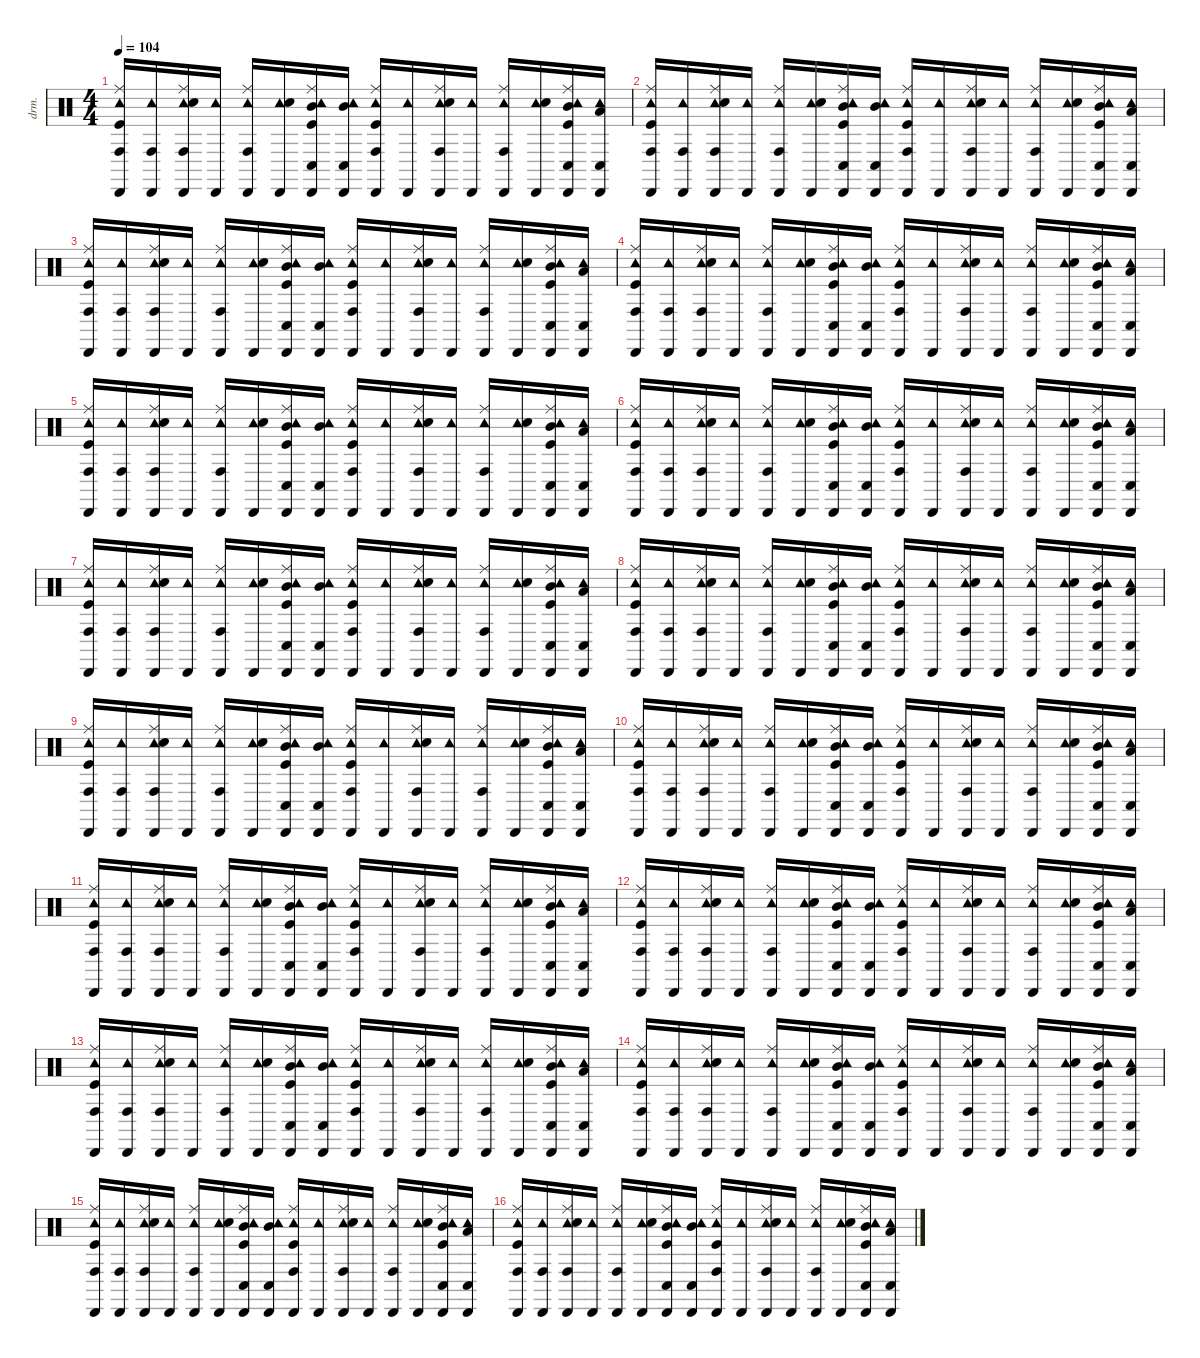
\defaultSystemsLayout 4
\hideDynamics
\bracketExtendMode nobrackets
\otherSystemsTrackNameOrientation horizontal
\track ("Drums" "drm.") {instrument percussion}
\staff {score}
\articulation defaults
\ts (4 4)
\tempo 104
\clef neutral
\ks c
("Cabasa (hit)" "Conga high (hit)" "Tambourine (hit)" "Ride (middle)" "Kick (hit)").16{dy f beam Up} ("Cabasa (hit)" "Conga high (hit)" "Tambourine (hit)").16{beam Up} ("Cabasa (hit)" "Conga high (hit)" "Tambourine (hit)" "Ride (middle)" "Snare (hit) 2").16{beam Up} ("Cabasa (hit)" "Tambourine (hit)").16{beam Up} ("Cabasa (hit)" "Conga high (hit)" "Tambourine (hit)" "Ride (middle)").16{beam Up} ("Cabasa (hit)" "Tambourine (hit)" "Snare (hit) 2").16{beam Up} ("Cabasa (hit)" "Conga low (hit)" "Tambourine (hit)" "Ride (middle)" "Mid Tom (hit)" "Kick (hit)").16{beam Up} ("Cabasa (hit)" "Conga low (hit)" "Tambourine (hit)" "Mid Tom (hit)").16{beam Up} ("Cabasa (hit)" "Conga high (hit)" "Tambourine (hit)" "Ride (middle)" "Kick (hit)").16{beam Up} ("Cabasa (hit)" "Tambourine (hit)").16{beam Up} ("Cabasa (hit)" "Conga high (hit)" "Tambourine (hit)" "Ride (middle)" "Snare (hit) 2").16{beam Up} ("Cabasa (hit)" "Tambourine (hit)").16{beam Up} ("Cabasa (hit)" "Conga high (hit)" "Tambourine (hit)" "Ride (middle)").16{beam Up} ("Cabasa (hit)" "Tambourine (hit)" "Snare (hit) 2").16{beam Up} ("Cabasa (hit)" "Conga low (hit)" "Tambourine (hit)" "Ride (middle)" "Mid Tom (hit)" "Kick (hit)").16{beam Up} ("Cabasa (hit)" "Conga low (hit)" "Tambourine (hit)" "Low Tom (hit)").16{beam Up} |
("Cabasa (hit)" "Conga high (hit)" "Tambourine (hit)" "Ride (middle)" "Kick (hit)").16{beam Up} ("Cabasa (hit)" "Conga high (hit)" "Tambourine (hit)").16{beam Up} ("Cabasa (hit)" "Conga high (hit)" "Tambourine (hit)" "Ride (middle)" "Snare (hit) 2").16{beam Up} ("Cabasa (hit)" "Tambourine (hit)").16{beam Up} ("Cabasa (hit)" "Conga high (hit)" "Tambourine (hit)" "Ride (middle)").16{beam Up} ("Cabasa (hit)" "Tambourine (hit)" "Snare (hit) 2").16{beam Up} ("Cabasa (hit)" "Conga low (hit)" "Tambourine (hit)" "Ride (middle)" "Mid Tom (hit)" "Kick (hit)").16{beam Up} ("Cabasa (hit)" "Conga low (hit)" "Tambourine (hit)" "Mid Tom (hit)").16{beam Up} ("Cabasa (hit)" "Conga high (hit)" "Tambourine (hit)" "Ride (middle)" "Kick (hit)").16{beam Up} ("Cabasa (hit)" "Tambourine (hit)").16{beam Up} ("Cabasa (hit)" "Conga high (hit)" "Tambourine (hit)" "Ride (middle)" "Snare (hit) 2").16{beam Up} ("Cabasa (hit)" "Tambourine (hit)").16{beam Up} ("Cabasa (hit)" "Conga high (hit)" "Tambourine (hit)" "Ride (middle)").16{beam Up} ("Cabasa (hit)" "Tambourine (hit)" "Snare (hit) 2").16{beam Up} ("Cabasa (hit)" "Conga low (hit)" "Tambourine (hit)" "Ride (middle)" "Mid Tom (hit)" "Kick (hit)").16{beam Up} ("Cabasa (hit)" "Conga low (hit)" "Tambourine (hit)" "Low Tom (hit)").16{beam Up} |
("Cabasa (hit)" "Conga high (hit)" "Tambourine (hit)" "Ride (middle)" "Kick (hit)").16{beam Up} ("Cabasa (hit)" "Conga high (hit)" "Tambourine (hit)").16{beam Up} ("Cabasa (hit)" "Conga high (hit)" "Tambourine (hit)" "Ride (middle)" "Snare (hit) 2").16{beam Up} ("Cabasa (hit)" "Tambourine (hit)").16{beam Up} ("Cabasa (hit)" "Conga high (hit)" "Tambourine (hit)" "Ride (middle)").16{beam Up} ("Cabasa (hit)" "Tambourine (hit)" "Snare (hit) 2").16{beam Up} ("Cabasa (hit)" "Conga low (hit)" "Tambourine (hit)" "Ride (middle)" "Mid Tom (hit)" "Kick (hit)").16{beam Up} ("Cabasa (hit)" "Conga low (hit)" "Tambourine (hit)" "Mid Tom (hit)").16{beam Up} ("Cabasa (hit)" "Conga high (hit)" "Tambourine (hit)" "Ride (middle)" "Kick (hit)").16{beam Up} ("Cabasa (hit)" "Tambourine (hit)").16{beam Up} ("Cabasa (hit)" "Conga high (hit)" "Tambourine (hit)" "Ride (middle)" "Snare (hit) 2").16{beam Up} ("Cabasa (hit)" "Tambourine (hit)").16{beam Up} ("Cabasa (hit)" "Conga high (hit)" "Tambourine (hit)" "Ride (middle)").16{beam Up} ("Cabasa (hit)" "Tambourine (hit)" "Snare (hit) 2").16{beam Up} ("Cabasa (hit)" "Conga low (hit)" "Tambourine (hit)" "Ride (middle)" "Mid Tom (hit)" "Kick (hit)").16{beam Up} ("Cabasa (hit)" "Conga low (hit)" "Tambourine (hit)" "Low Tom (hit)").16{beam Up} |
("Cabasa (hit)" "Conga high (hit)" "Tambourine (hit)" "Ride (middle)" "Kick (hit)").16{beam Up} ("Cabasa (hit)" "Conga high (hit)" "Tambourine (hit)").16{beam Up} ("Cabasa (hit)" "Conga high (hit)" "Tambourine (hit)" "Ride (middle)" "Snare (hit) 2").16{beam Up} ("Cabasa (hit)" "Tambourine (hit)").16{beam Up} ("Cabasa (hit)" "Conga high (hit)" "Tambourine (hit)" "Ride (middle)").16{beam Up} ("Cabasa (hit)" "Tambourine (hit)" "Snare (hit) 2").16{beam Up} ("Cabasa (hit)" "Conga low (hit)" "Tambourine (hit)" "Ride (middle)" "Mid Tom (hit)" "Kick (hit)").16{beam Up} ("Cabasa (hit)" "Conga low (hit)" "Tambourine (hit)" "Mid Tom (hit)").16{beam Up} ("Cabasa (hit)" "Conga high (hit)" "Tambourine (hit)" "Ride (middle)" "Kick (hit)").16{beam Up} ("Cabasa (hit)" "Tambourine (hit)").16{beam Up} ("Cabasa (hit)" "Conga high (hit)" "Tambourine (hit)" "Ride (middle)" "Snare (hit) 2").16{beam Up} ("Cabasa (hit)" "Tambourine (hit)").16{beam Up} ("Cabasa (hit)" "Conga high (hit)" "Tambourine (hit)" "Ride (middle)").16{beam Up} ("Cabasa (hit)" "Tambourine (hit)" "Snare (hit) 2").16{beam Up} ("Cabasa (hit)" "Conga low (hit)" "Tambourine (hit)" "Ride (middle)" "Mid Tom (hit)" "Kick (hit)").16{beam Up} ("Cabasa (hit)" "Conga low (hit)" "Tambourine (hit)" "Low Tom (hit)").16{beam Up} |
("Cabasa (hit)" "Conga high (hit)" "Tambourine (hit)" "Ride (middle)" "Kick (hit)").16{beam Up} ("Cabasa (hit)" "Conga high (hit)" "Tambourine (hit)").16{beam Up} ("Cabasa (hit)" "Conga high (hit)" "Tambourine (hit)" "Ride (middle)" "Snare (hit) 2").16{beam Up} ("Cabasa (hit)" "Tambourine (hit)").16{beam Up} ("Cabasa (hit)" "Conga high (hit)" "Tambourine (hit)" "Ride (middle)").16{beam Up} ("Cabasa (hit)" "Tambourine (hit)" "Snare (hit) 2").16{beam Up} ("Cabasa (hit)" "Conga low (hit)" "Tambourine (hit)" "Ride (middle)" "Mid Tom (hit)" "Kick (hit)").16{beam Up} ("Cabasa (hit)" "Conga low (hit)" "Tambourine (hit)" "Mid Tom (hit)").16{beam Up} ("Cabasa (hit)" "Conga high (hit)" "Tambourine (hit)" "Ride (middle)" "Kick (hit)").16{beam Up} ("Cabasa (hit)" "Tambourine (hit)").16{beam Up} ("Cabasa (hit)" "Conga high (hit)" "Tambourine (hit)" "Ride (middle)" "Snare (hit) 2").16{beam Up} ("Cabasa (hit)" "Tambourine (hit)").16{beam Up} ("Cabasa (hit)" "Conga high (hit)" "Tambourine (hit)" "Ride (middle)").16{beam Up} ("Cabasa (hit)" "Tambourine (hit)" "Snare (hit) 2").16{beam Up} ("Cabasa (hit)" "Conga low (hit)" "Tambourine (hit)" "Ride (middle)" "Mid Tom (hit)" "Kick (hit)").16{beam Up} ("Cabasa (hit)" "Conga low (hit)" "Tambourine (hit)" "Low Tom (hit)").16{beam Up} |
("Cabasa (hit)" "Conga high (hit)" "Tambourine (hit)" "Ride (middle)" "Kick (hit)").16{beam Up} ("Cabasa (hit)" "Conga high (hit)" "Tambourine (hit)").16{beam Up} ("Cabasa (hit)" "Conga high (hit)" "Tambourine (hit)" "Ride (middle)" "Snare (hit) 2").16{beam Up} ("Cabasa (hit)" "Tambourine (hit)").16{beam Up} ("Cabasa (hit)" "Conga high (hit)" "Tambourine (hit)" "Ride (middle)").16{beam Up} ("Cabasa (hit)" "Tambourine (hit)" "Snare (hit) 2").16{beam Up} ("Cabasa (hit)" "Conga low (hit)" "Tambourine (hit)" "Ride (middle)" "Mid Tom (hit)" "Kick (hit)").16{beam Up} ("Cabasa (hit)" "Conga low (hit)" "Tambourine (hit)" "Mid Tom (hit)").16{beam Up} ("Cabasa (hit)" "Conga high (hit)" "Tambourine (hit)" "Ride (middle)" "Kick (hit)").16{beam Up} ("Cabasa (hit)" "Tambourine (hit)").16{beam Up} ("Cabasa (hit)" "Conga high (hit)" "Tambourine (hit)" "Ride (middle)" "Snare (hit) 2").16{beam Up} ("Cabasa (hit)" "Tambourine (hit)").16{beam Up} ("Cabasa (hit)" "Conga high (hit)" "Tambourine (hit)" "Ride (middle)").16{beam Up} ("Cabasa (hit)" "Tambourine (hit)" "Snare (hit) 2").16{beam Up} ("Cabasa (hit)" "Conga low (hit)" "Tambourine (hit)" "Ride (middle)" "Mid Tom (hit)" "Kick (hit)").16{beam Up} ("Cabasa (hit)" "Conga low (hit)" "Tambourine (hit)" "Low Tom (hit)").16{beam Up} |
("Cabasa (hit)" "Conga high (hit)" "Tambourine (hit)" "Ride (middle)" "Kick (hit)").16{beam Up} ("Cabasa (hit)" "Conga high (hit)" "Tambourine (hit)").16{beam Up} ("Cabasa (hit)" "Conga high (hit)" "Tambourine (hit)" "Ride (middle)" "Snare (hit) 2").16{beam Up} ("Cabasa (hit)" "Tambourine (hit)").16{beam Up} ("Cabasa (hit)" "Conga high (hit)" "Tambourine (hit)" "Ride (middle)").16{beam Up} ("Cabasa (hit)" "Tambourine (hit)" "Snare (hit) 2").16{beam Up} ("Cabasa (hit)" "Conga low (hit)" "Tambourine (hit)" "Ride (middle)" "Mid Tom (hit)" "Kick (hit)").16{beam Up} ("Cabasa (hit)" "Conga low (hit)" "Tambourine (hit)" "Mid Tom (hit)").16{beam Up} ("Cabasa (hit)" "Conga high (hit)" "Tambourine (hit)" "Ride (middle)" "Kick (hit)").16{beam Up} ("Cabasa (hit)" "Tambourine (hit)").16{beam Up} ("Cabasa (hit)" "Conga high (hit)" "Tambourine (hit)" "Ride (middle)" "Snare (hit) 2").16{beam Up} ("Cabasa (hit)" "Tambourine (hit)").16{beam Up} ("Cabasa (hit)" "Conga high (hit)" "Tambourine (hit)" "Ride (middle)").16{beam Up} ("Cabasa (hit)" "Tambourine (hit)" "Snare (hit) 2").16{beam Up} ("Cabasa (hit)" "Conga low (hit)" "Tambourine (hit)" "Ride (middle)" "Mid Tom (hit)" "Kick (hit)").16{beam Up} ("Cabasa (hit)" "Conga low (hit)" "Tambourine (hit)" "Low Tom (hit)").16{beam Up} |
("Cabasa (hit)" "Conga high (hit)" "Tambourine (hit)" "Ride (middle)" "Kick (hit)").16{beam Up} ("Cabasa (hit)" "Conga high (hit)" "Tambourine (hit)").16{beam Up} ("Cabasa (hit)" "Conga high (hit)" "Tambourine (hit)" "Ride (middle)" "Snare (hit) 2").16{beam Up} ("Cabasa (hit)" "Tambourine (hit)").16{beam Up} ("Cabasa (hit)" "Conga high (hit)" "Tambourine (hit)" "Ride (middle)").16{beam Up} ("Cabasa (hit)" "Tambourine (hit)" "Snare (hit) 2").16{beam Up} ("Cabasa (hit)" "Conga low (hit)" "Tambourine (hit)" "Ride (middle)" "Mid Tom (hit)" "Kick (hit)").16{beam Up} ("Cabasa (hit)" "Conga low (hit)" "Tambourine (hit)" "Mid Tom (hit)").16{beam Up} ("Cabasa (hit)" "Conga high (hit)" "Tambourine (hit)" "Ride (middle)" "Kick (hit)").16{beam Up} ("Cabasa (hit)" "Tambourine (hit)").16{beam Up} ("Cabasa (hit)" "Conga high (hit)" "Tambourine (hit)" "Ride (middle)" "Snare (hit) 2").16{beam Up} ("Cabasa (hit)" "Tambourine (hit)").16{beam Up} ("Cabasa (hit)" "Conga high (hit)" "Tambourine (hit)" "Ride (middle)").16{beam Up} ("Cabasa (hit)" "Tambourine (hit)" "Snare (hit) 2").16{beam Up} ("Cabasa (hit)" "Conga low (hit)" "Tambourine (hit)" "Ride (middle)" "Mid Tom (hit)" "Kick (hit)").16{beam Up} ("Cabasa (hit)" "Conga low (hit)" "Tambourine (hit)" "Low Tom (hit)").16{beam Up} |
("Cabasa (hit)" "Conga high (hit)" "Tambourine (hit)" "Ride (middle)" "Kick (hit)").16{beam Up} ("Cabasa (hit)" "Conga high (hit)" "Tambourine (hit)").16{beam Up} ("Cabasa (hit)" "Conga high (hit)" "Tambourine (hit)" "Ride (middle)" "Snare (hit) 2").16{beam Up} ("Cabasa (hit)" "Tambourine (hit)").16{beam Up} ("Cabasa (hit)" "Conga high (hit)" "Tambourine (hit)" "Ride (middle)").16{beam Up} ("Cabasa (hit)" "Tambourine (hit)" "Snare (hit) 2").16{beam Up} ("Cabasa (hit)" "Conga low (hit)" "Tambourine (hit)" "Ride (middle)" "Mid Tom (hit)" "Kick (hit)").16{beam Up} ("Cabasa (hit)" "Conga low (hit)" "Tambourine (hit)" "Mid Tom (hit)").16{beam Up} ("Cabasa (hit)" "Conga high (hit)" "Tambourine (hit)" "Ride (middle)" "Kick (hit)").16{beam Up} ("Cabasa (hit)" "Tambourine (hit)").16{beam Up} ("Cabasa (hit)" "Conga high (hit)" "Tambourine (hit)" "Ride (middle)" "Snare (hit) 2").16{beam Up} ("Cabasa (hit)" "Tambourine (hit)").16{beam Up} ("Cabasa (hit)" "Conga high (hit)" "Tambourine (hit)" "Ride (middle)").16{beam Up} ("Cabasa (hit)" "Tambourine (hit)" "Snare (hit) 2").16{beam Up} ("Cabasa (hit)" "Conga low (hit)" "Tambourine (hit)" "Ride (middle)" "Mid Tom (hit)" "Kick (hit)").16{beam Up} ("Cabasa (hit)" "Conga low (hit)" "Tambourine (hit)" "Low Tom (hit)").16{beam Up} |
("Cabasa (hit)" "Conga high (hit)" "Tambourine (hit)" "Ride (middle)" "Kick (hit)").16{beam Up} ("Cabasa (hit)" "Conga high (hit)" "Tambourine (hit)").16{beam Up} ("Cabasa (hit)" "Conga high (hit)" "Tambourine (hit)" "Ride (middle)" "Snare (hit) 2").16{beam Up} ("Cabasa (hit)" "Tambourine (hit)").16{beam Up} ("Cabasa (hit)" "Conga high (hit)" "Tambourine (hit)" "Ride (middle)").16{beam Up} ("Cabasa (hit)" "Tambourine (hit)" "Snare (hit) 2").16{beam Up} ("Cabasa (hit)" "Conga low (hit)" "Tambourine (hit)" "Ride (middle)" "Mid Tom (hit)" "Kick (hit)").16{beam Up} ("Cabasa (hit)" "Conga low (hit)" "Tambourine (hit)" "Mid Tom (hit)").16{beam Up} ("Cabasa (hit)" "Conga high (hit)" "Tambourine (hit)" "Ride (middle)" "Kick (hit)").16{beam Up} ("Cabasa (hit)" "Tambourine (hit)").16{beam Up} ("Cabasa (hit)" "Conga high (hit)" "Tambourine (hit)" "Ride (middle)" "Snare (hit) 2").16{beam Up} ("Cabasa (hit)" "Tambourine (hit)").16{beam Up} ("Cabasa (hit)" "Conga high (hit)" "Tambourine (hit)" "Ride (middle)").16{beam Up} ("Cabasa (hit)" "Tambourine (hit)" "Snare (hit) 2").16{beam Up} ("Cabasa (hit)" "Conga low (hit)" "Tambourine (hit)" "Ride (middle)" "Mid Tom (hit)" "Kick (hit)").16{beam Up} ("Cabasa (hit)" "Conga low (hit)" "Tambourine (hit)" "Low Tom (hit)").16{beam Up} |
("Cabasa (hit)" "Conga high (hit)" "Tambourine (hit)" "Ride (middle)" "Kick (hit)").16{beam Up} ("Cabasa (hit)" "Conga high (hit)" "Tambourine (hit)").16{beam Up} ("Cabasa (hit)" "Conga high (hit)" "Tambourine (hit)" "Ride (middle)" "Snare (hit) 2").16{beam Up} ("Cabasa (hit)" "Tambourine (hit)").16{beam Up} ("Cabasa (hit)" "Conga high (hit)" "Tambourine (hit)" "Ride (middle)").16{beam Up} ("Cabasa (hit)" "Tambourine (hit)" "Snare (hit) 2").16{beam Up} ("Cabasa (hit)" "Conga low (hit)" "Tambourine (hit)" "Ride (middle)" "Mid Tom (hit)" "Kick (hit)").16{beam Up} ("Cabasa (hit)" "Conga low (hit)" "Tambourine (hit)" "Mid Tom (hit)").16{beam Up} ("Cabasa (hit)" "Conga high (hit)" "Tambourine (hit)" "Ride (middle)" "Kick (hit)").16{beam Up} ("Cabasa (hit)" "Tambourine (hit)").16{beam Up} ("Cabasa (hit)" "Conga high (hit)" "Tambourine (hit)" "Ride (middle)" "Snare (hit) 2").16{beam Up} ("Cabasa (hit)" "Tambourine (hit)").16{beam Up} ("Cabasa (hit)" "Conga high (hit)" "Tambourine (hit)" "Ride (middle)").16{beam Up} ("Cabasa (hit)" "Tambourine (hit)" "Snare (hit) 2").16{beam Up} ("Cabasa (hit)" "Conga low (hit)" "Tambourine (hit)" "Ride (middle)" "Mid Tom (hit)" "Kick (hit)").16{beam Up} ("Cabasa (hit)" "Conga low (hit)" "Tambourine (hit)" "Low Tom (hit)").16{beam Up} |
("Cabasa (hit)" "Conga high (hit)" "Tambourine (hit)" "Ride (middle)" "Kick (hit)").16{beam Up} ("Cabasa (hit)" "Conga high (hit)" "Tambourine (hit)").16{beam Up} ("Cabasa (hit)" "Conga high (hit)" "Tambourine (hit)" "Ride (middle)" "Snare (hit) 2").16{beam Up} ("Cabasa (hit)" "Tambourine (hit)").16{beam Up} ("Cabasa (hit)" "Conga high (hit)" "Tambourine (hit)" "Ride (middle)").16{beam Up} ("Cabasa (hit)" "Tambourine (hit)" "Snare (hit) 2").16{beam Up} ("Cabasa (hit)" "Conga low (hit)" "Tambourine (hit)" "Ride (middle)" "Mid Tom (hit)" "Kick (hit)").16{beam Up} ("Cabasa (hit)" "Conga low (hit)" "Tambourine (hit)" "Mid Tom (hit)").16{beam Up} ("Cabasa (hit)" "Conga high (hit)" "Tambourine (hit)" "Ride (middle)" "Kick (hit)").16{beam Up} ("Cabasa (hit)" "Tambourine (hit)").16{beam Up} ("Cabasa (hit)" "Conga high (hit)" "Tambourine (hit)" "Ride (middle)" "Snare (hit) 2").16{beam Up} ("Cabasa (hit)" "Tambourine (hit)").16{beam Up} ("Cabasa (hit)" "Conga high (hit)" "Tambourine (hit)" "Ride (middle)").16{beam Up} ("Cabasa (hit)" "Tambourine (hit)" "Snare (hit) 2").16{beam Up} ("Cabasa (hit)" "Conga low (hit)" "Tambourine (hit)" "Ride (middle)" "Mid Tom (hit)" "Kick (hit)").16{beam Up} ("Cabasa (hit)" "Conga low (hit)" "Tambourine (hit)" "Low Tom (hit)").16{beam Up} |
("Cabasa (hit)" "Conga high (hit)" "Tambourine (hit)" "Ride (middle)" "Kick (hit)").16{beam Up} ("Cabasa (hit)" "Conga high (hit)" "Tambourine (hit)").16{beam Up} ("Cabasa (hit)" "Conga high (hit)" "Tambourine (hit)" "Ride (middle)" "Snare (hit) 2").16{beam Up} ("Cabasa (hit)" "Tambourine (hit)").16{beam Up} ("Cabasa (hit)" "Conga high (hit)" "Tambourine (hit)" "Ride (middle)").16{beam Up} ("Cabasa (hit)" "Tambourine (hit)" "Snare (hit) 2").16{beam Up} ("Cabasa (hit)" "Conga low (hit)" "Tambourine (hit)" "Ride (middle)" "Mid Tom (hit)" "Kick (hit)").16{beam Up} ("Cabasa (hit)" "Conga low (hit)" "Tambourine (hit)" "Mid Tom (hit)").16{beam Up} ("Cabasa (hit)" "Conga high (hit)" "Tambourine (hit)" "Ride (middle)" "Kick (hit)").16{beam Up} ("Cabasa (hit)" "Tambourine (hit)").16{beam Up} ("Cabasa (hit)" "Conga high (hit)" "Tambourine (hit)" "Ride (middle)" "Snare (hit) 2").16{beam Up} ("Cabasa (hit)" "Tambourine (hit)").16{beam Up} ("Cabasa (hit)" "Conga high (hit)" "Tambourine (hit)" "Ride (middle)").16{beam Up} ("Cabasa (hit)" "Tambourine (hit)" "Snare (hit) 2").16{beam Up} ("Cabasa (hit)" "Conga low (hit)" "Tambourine (hit)" "Ride (middle)" "Mid Tom (hit)" "Kick (hit)").16{beam Up} ("Cabasa (hit)" "Conga low (hit)" "Tambourine (hit)" "Low Tom (hit)").16{beam Up} |
("Cabasa (hit)" "Conga high (hit)" "Tambourine (hit)" "Ride (middle)" "Kick (hit)").16{beam Up} ("Cabasa (hit)" "Conga high (hit)" "Tambourine (hit)").16{beam Up} ("Cabasa (hit)" "Conga high (hit)" "Tambourine (hit)" "Ride (middle)" "Snare (hit) 2").16{beam Up} ("Cabasa (hit)" "Tambourine (hit)").16{beam Up} ("Cabasa (hit)" "Conga high (hit)" "Tambourine (hit)" "Ride (middle)").16{beam Up} ("Cabasa (hit)" "Tambourine (hit)" "Snare (hit) 2").16{beam Up} ("Cabasa (hit)" "Conga low (hit)" "Tambourine (hit)" "Ride (middle)" "Mid Tom (hit)" "Kick (hit)").16{beam Up} ("Cabasa (hit)" "Conga low (hit)" "Tambourine (hit)" "Mid Tom (hit)").16{beam Up} ("Cabasa (hit)" "Conga high (hit)" "Tambourine (hit)" "Ride (middle)" "Kick (hit)").16{beam Up} ("Cabasa (hit)" "Tambourine (hit)").16{beam Up} ("Cabasa (hit)" "Conga high (hit)" "Tambourine (hit)" "Ride (middle)" "Snare (hit) 2").16{beam Up} ("Cabasa (hit)" "Tambourine (hit)").16{beam Up} ("Cabasa (hit)" "Conga high (hit)" "Tambourine (hit)" "Ride (middle)").16{beam Up} ("Cabasa (hit)" "Tambourine (hit)" "Snare (hit) 2").16{beam Up} ("Cabasa (hit)" "Conga low (hit)" "Tambourine (hit)" "Ride (middle)" "Mid Tom (hit)" "Kick (hit)").16{beam Up} ("Cabasa (hit)" "Conga low (hit)" "Tambourine (hit)" "Low Tom (hit)").16{beam Up} |
("Cabasa (hit)" "Conga high (hit)" "Tambourine (hit)" "Ride (middle)" "Kick (hit)").16{beam Up} ("Cabasa (hit)" "Conga high (hit)" "Tambourine (hit)").16{beam Up} ("Cabasa (hit)" "Conga high (hit)" "Tambourine (hit)" "Ride (middle)" "Snare (hit) 2").16{beam Up} ("Cabasa (hit)" "Tambourine (hit)").16{beam Up} ("Cabasa (hit)" "Conga high (hit)" "Tambourine (hit)" "Ride (middle)").16{beam Up} ("Cabasa (hit)" "Tambourine (hit)" "Snare (hit) 2").16{beam Up} ("Cabasa (hit)" "Conga low (hit)" "Tambourine (hit)" "Ride (middle)" "Mid Tom (hit)" "Kick (hit)").16{beam Up} ("Cabasa (hit)" "Conga low (hit)" "Tambourine (hit)" "Mid Tom (hit)").16{beam Up} ("Cabasa (hit)" "Conga high (hit)" "Tambourine (hit)" "Ride (middle)" "Kick (hit)").16{beam Up} ("Cabasa (hit)" "Tambourine (hit)").16{beam Up} ("Cabasa (hit)" "Conga high (hit)" "Tambourine (hit)" "Ride (middle)" "Snare (hit) 2").16{beam Up} ("Cabasa (hit)" "Tambourine (hit)").16{beam Up} ("Cabasa (hit)" "Conga high (hit)" "Tambourine (hit)" "Ride (middle)").16{beam Up} ("Cabasa (hit)" "Tambourine (hit)" "Snare (hit) 2").16{beam Up} ("Cabasa (hit)" "Conga low (hit)" "Tambourine (hit)" "Ride (middle)" "Mid Tom (hit)" "Kick (hit)").16{beam Up} ("Cabasa (hit)" "Conga low (hit)" "Tambourine (hit)" "Low Tom (hit)").16{beam Up} |
("Cabasa (hit)" "Conga high (hit)" "Tambourine (hit)" "Ride (middle)" "Kick (hit)").16{beam Up} ("Cabasa (hit)" "Conga high (hit)" "Tambourine (hit)").16{beam Up} ("Cabasa (hit)" "Conga high (hit)" "Tambourine (hit)" "Ride (middle)" "Snare (hit) 2").16{beam Up} ("Cabasa (hit)" "Tambourine (hit)").16{beam Up} ("Cabasa (hit)" "Conga high (hit)" "Tambourine (hit)" "Ride (middle)").16{beam Up} ("Cabasa (hit)" "Tambourine (hit)" "Snare (hit) 2").16{beam Up} ("Cabasa (hit)" "Conga low (hit)" "Tambourine (hit)" "Ride (middle)" "Mid Tom (hit)" "Kick (hit)").16{beam Up} ("Cabasa (hit)" "Conga low (hit)" "Tambourine (hit)" "Mid Tom (hit)").16{beam Up} ("Cabasa (hit)" "Conga high (hit)" "Tambourine (hit)" "Ride (middle)" "Kick (hit)").16{beam Up} ("Cabasa (hit)" "Tambourine (hit)").16{beam Up} ("Cabasa (hit)" "Conga high (hit)" "Tambourine (hit)" "Ride (middle)" "Snare (hit) 2").16{beam Up} ("Cabasa (hit)" "Tambourine (hit)").16{beam Up} ("Cabasa (hit)" "Conga high (hit)" "Tambourine (hit)" "Ride (middle)").16{beam Up} ("Cabasa (hit)" "Tambourine (hit)" "Snare (hit) 2").16{beam Up} ("Cabasa (hit)" "Conga low (hit)" "Tambourine (hit)" "Ride (middle)" "Mid Tom (hit)" "Kick (hit)").16{beam Up} ("Cabasa (hit)" "Conga low (hit)" "Tambourine (hit)" "Low Tom (hit)").16{beam Up}
